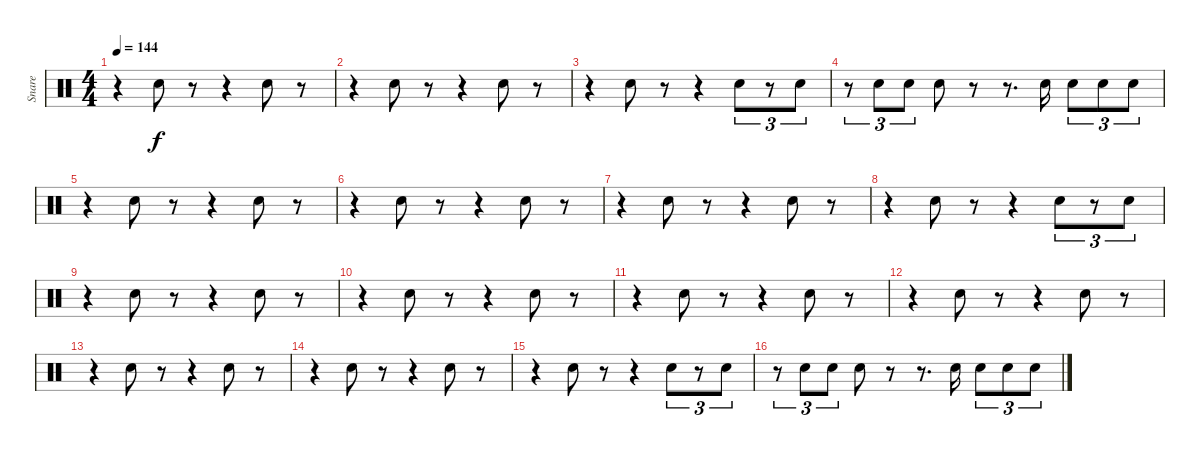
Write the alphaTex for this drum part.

\track ("Snare" "Snare") {instrument percussion}
\staff {score}
\articulation defaults
\ts (4 4)
\tempo 144
\clef neutral
\ks c
r.4{dy f} "Snare (hit) 2".8 r.8 r.4 "Snare (hit) 2".8 r.8 |
r.4 "Snare (hit) 2".8 r.8 r.4 "Snare (hit) 2".8 r.8 |
r.4 "Snare (hit) 2".8 r.8 r.4 "Snare (hit) 2".8{tu (3 2)} r.8{tu (3 2)} "Snare (hit) 2".8{tu (3 2)} |
r.8{tu (3 2)} "Snare (hit) 2".8{tu (3 2)} "Snare (hit) 2".8{tu (3 2)} "Snare (hit) 2".8 r.8 r.8{d} "Snare (hit) 2".16 "Snare (hit) 2".8{tu (3 2)} "Snare (hit) 2".8{tu (3 2)} "Snare (hit) 2".8{tu (3 2)} |
r.4 "Snare (hit) 2".8 r.8 r.4 "Snare (hit) 2".8 r.8 |
r.4 "Snare (hit) 2".8 r.8 r.4 "Snare (hit) 2".8 r.8 |
r.4 "Snare (hit) 2".8 r.8 r.4 "Snare (hit) 2".8 r.8 |
r.4 "Snare (hit) 2".8 r.8 r.4 "Snare (hit) 2".8{tu (3 2)} r.8{tu (3 2)} "Snare (hit) 2".8{tu (3 2)} |
r.4 "Snare (hit) 2".8 r.8 r.4 "Snare (hit) 2".8 r.8 |
r.4 "Snare (hit) 2".8 r.8 r.4 "Snare (hit) 2".8 r.8 |
r.4 "Snare (hit) 2".8 r.8 r.4 "Snare (hit) 2".8 r.8 |
r.4 "Snare (hit) 2".8 r.8 r.4 "Snare (hit) 2".8 r.8 |
r.4 "Snare (hit) 2".8 r.8 r.4 "Snare (hit) 2".8 r.8 |
r.4 "Snare (hit) 2".8 r.8 r.4 "Snare (hit) 2".8 r.8 |
r.4 "Snare (hit) 2".8 r.8 r.4 "Snare (hit) 2".8{tu (3 2)} r.8{tu (3 2)} "Snare (hit) 2".8{tu (3 2)} |
r.8{tu (3 2)} "Snare (hit) 2".8{tu (3 2)} "Snare (hit) 2".8{tu (3 2)} "Snare (hit) 2".8 r.8 r.8{d} "Snare (hit) 2".16 "Snare (hit) 2".8{tu (3 2)} "Snare (hit) 2".8{tu (3 2)} "Snare (hit) 2".8{tu (3 2)}
